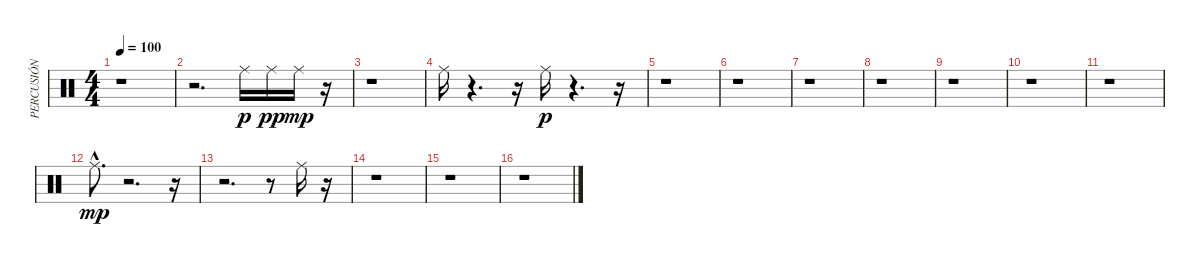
\track ("PERCUSIÓN" "PERCUSIÓN") {instrument percussion}
\staff {score}
\articulation defaults
\ts (4 4)
\tempo 100
\clef neutral
\ks c
r.1{dy p} |
r.2{d} "Ride (middle)".16 "Ride (middle)".16{dy pp} "Ride (middle)".16{dy mp} r.16 |
r.1 |
"Ride (middle)".16 r.4{d} r.16 "Ride (middle)".16{dy p} r.4{d} r.16 |
r.1 |
r.1 |
r.1 |
r.1 |
r.1 |
r.1 |
r.1 |
"Ride (middle)"{hac}.8{d dy mp} r.2{d} r.16 |
r.2{d} r.8 "Ride (middle)".16 r.16 |
r.1 |
r.1 |
r.1
